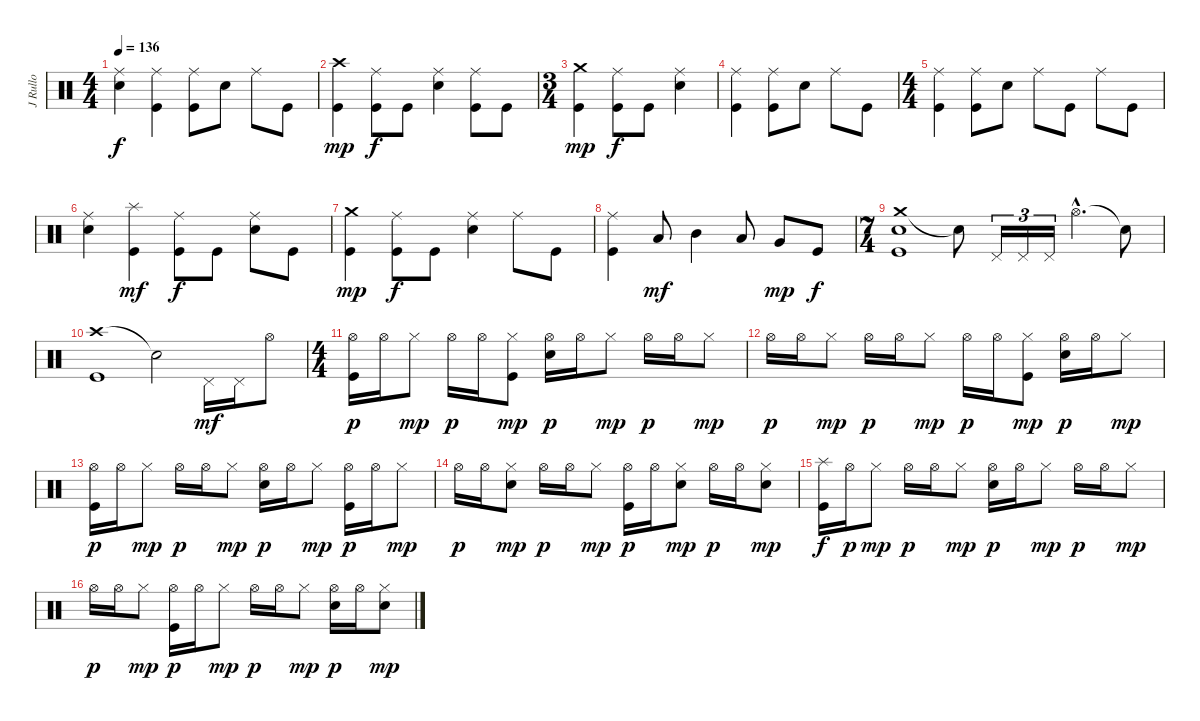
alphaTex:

\track ("J Rullo" "J Rullo") {instrument percussion}
\staff {score}
\articulation defaults
\ts (4 4)
\tempo 136
\clef neutral
\ks c
("Ride (middle)" "Electric Snare (hit)").4{dy f} ("Ride (middle)" "Kick (hit)").4 ("Ride (middle)" "Kick (hit)").8 "Electric Snare (hit)".8 "Ride (middle)".8 "Kick (hit)".8 |
("Crash high (hit)" "Kick (hit)").4{dy mp} ("Ride (middle)" "Kick (hit)").8{dy f} "Kick (hit)".8 ("Ride (middle)" "Electric Snare (hit)").4 ("Ride (middle)" "Kick (hit)").8 "Kick (hit)".8 |
\ts (3 4)
("Crash medium (hit)" "Kick (hit)").4{dy mp} ("Ride (middle)" "Kick (hit)").8{dy f} "Kick (hit)".8 ("Ride (middle)" "Electric Snare (hit)").4 |
("Ride (middle)" "Kick (hit)").4 ("Ride (middle)" "Kick (hit)").8 "Electric Snare (hit)".8 "Ride (middle)".8 "Kick (hit)".8 |
\ts (4 4)
("Ride (middle)" "Kick (hit)").4 ("Ride (middle)" "Kick (hit)").8 "Electric Snare (hit)".8 "Ride (middle)".8 "Kick (hit)".8 "Ride (middle)".8 "Kick (hit)".8 |
("Ride (middle)" "Electric Snare (hit)").4 ("Splash (hit)" "Kick (hit)").4{dy mf} ("Ride (middle)" "Kick (hit)").8{dy f} "Kick (hit)".8 ("Ride (middle)" "Electric Snare (hit)").8 "Kick (hit)".8 |
("Crash medium (hit)" "Kick (hit)").4{dy mp} ("Ride (middle)" "Kick (hit)").8{dy f} "Kick (hit)".8 ("Ride (middle)" "Electric Snare (hit)").4 "Ride (middle)".8 "Kick (hit)".8 |
("Ride (middle)" "Kick (hit)").4 "Low Tom (hit)".8{dy mf} "Mid Tom (hit)".4 "Low Tom (hit)".8 "Very Low Tom (hit)".8{dy mp} "Kick (hit)".8{dy f} |
\ts (7 4)
("Crash medium (hit)" "Snare (hit) 2" "Kick (hit)").1 "Snare (hit)"{t}.8 "Pedal Hi-Hat (hit)".16{tu (3 2)} "Pedal Hi-Hat (hit)".16{tu (3 2)} "Pedal Hi-Hat (hit)".16{tu (3 2)} "Hi-Hat (open)"{hac}.4{d} "Snare (hit)"{t}.8 |
("Crash high (hit)" "Kick (hit)").1 "Snare (hit)"{t}.2 "Pedal Hi-Hat (hit)".16{dy mf} "Pedal Hi-Hat (hit)".16 "Hi-Hat (open)".8 |
\ts (4 4)
("Hi-Hat (open)" "Kick (hit)").16{dy p} "Hi-Hat (open)".16 "Hi-Hat (closed)".8{dy mp} "Hi-Hat (open)".16{dy p} "Hi-Hat (open)".16 ("Hi-Hat (closed)" "Kick (hit)").8{dy mp} ("Hi-Hat (open)" "Electric Snare (hit)").16{dy p} "Hi-Hat (open)".16 "Hi-Hat (closed)".8{dy mp} "Hi-Hat (open)".16{dy p} "Hi-Hat (open)".16 "Hi-Hat (closed)".8{dy mp} |
"Hi-Hat (open)".16{dy p} "Hi-Hat (open)".16 "Hi-Hat (closed)".8{dy mp} "Hi-Hat (open)".16{dy p} "Hi-Hat (open)".16 "Hi-Hat (closed)".8{dy mp} "Hi-Hat (open)".16{dy p} "Hi-Hat (open)".16 ("Hi-Hat (closed)" "Kick (hit)").8{dy mp} ("Hi-Hat (open)" "Electric Snare (hit)").16{dy p} "Hi-Hat (open)".16 "Hi-Hat (closed)".8{dy mp} |
("Hi-Hat (open)" "Kick (hit)").16{dy p} "Hi-Hat (open)".16 "Hi-Hat (closed)".8{dy mp} "Hi-Hat (open)".16{dy p} "Hi-Hat (open)".16 "Hi-Hat (closed)".8{dy mp} ("Hi-Hat (open)" "Electric Snare (hit)").16{dy p} "Hi-Hat (open)".16 "Hi-Hat (closed)".8{dy mp} ("Hi-Hat (open)" "Kick (hit)").16{dy p} "Hi-Hat (open)".16 "Hi-Hat (closed)".8{dy mp} |
"Hi-Hat (open)".16{dy p} "Hi-Hat (open)".16 ("Hi-Hat (closed)" "Electric Snare (hit)").8{dy mp} "Hi-Hat (open)".16{dy p} "Hi-Hat (open)".16 "Hi-Hat (closed)".8{dy mp} ("Hi-Hat (open)" "Kick (hit)").16{dy p} "Hi-Hat (open)".16 ("Hi-Hat (closed)" "Electric Snare (hit)").8{dy mp} "Hi-Hat (open)".16{dy p} "Hi-Hat (open)".16 ("Hi-Hat (closed)" "Electric Snare (hit)").8{dy mp} |
("Splash (hit)" "Kick (hit)").16{dy f} "Hi-Hat (open)".16{dy p} "Hi-Hat (closed)".8{dy mp} "Hi-Hat (open)".16{dy p} "Hi-Hat (open)".16 "Hi-Hat (closed)".8{dy mp} ("Hi-Hat (open)" "Electric Snare (hit)").16{dy p} "Hi-Hat (open)".16 "Hi-Hat (closed)".8{dy mp} "Hi-Hat (open)".16{dy p} "Hi-Hat (open)".16 "Hi-Hat (closed)".8{dy mp} |
"Hi-Hat (open)".16{dy p} "Hi-Hat (open)".16 "Hi-Hat (closed)".8{dy mp} ("Hi-Hat (open)" "Kick (hit)").16{dy p} "Hi-Hat (open)".16 "Hi-Hat (closed)".8{dy mp} "Hi-Hat (open)".16{dy p} "Hi-Hat (open)".16 "Hi-Hat (closed)".8{dy mp} ("Hi-Hat (open)" "Electric Snare (hit)").16{dy p} "Hi-Hat (open)".16 ("Hi-Hat (closed)" "Electric Snare (hit)").8{dy mp}
